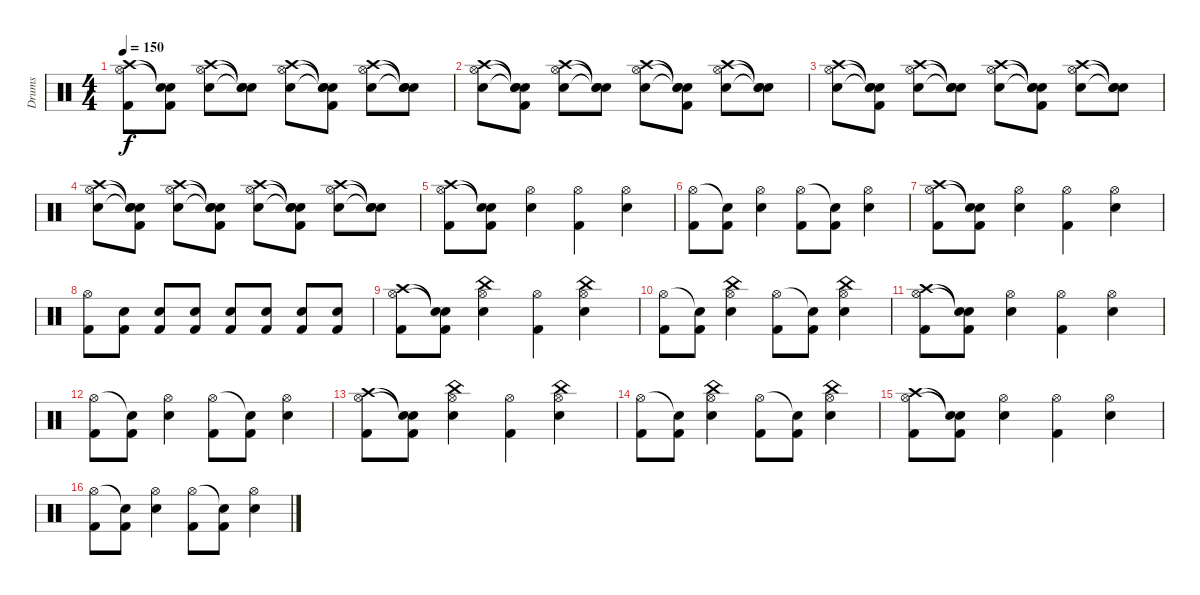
\track ("Drums" "Drums") {instrument percussion}
\staff {score}
\articulation defaults
\ts (4 4)
\tempo 150
\clef neutral
\ks c
("Crash high (hit)" "Hi-Hat (open)" "Kick (hit) 2").8{dy f} ("Snare (hit)"{t} "Snare (hit)"{t} "Kick (hit) 2").8 ("Crash high (hit)" "Snare (hit) 2" "Hi-Hat (open)").8 ("Snare (hit)"{t} "Snare (hit)"{t} "Snare (hit)"{t}).8 ("Crash high (hit)" "Snare (hit) 2" "Hi-Hat (open)").8 ("Snare (hit)"{t} "Snare (hit)"{t} "Snare (hit)"{t} "Kick (hit) 2").8 ("Crash high (hit)" "Snare (hit) 2" "Hi-Hat (open)").8 ("Snare (hit)"{t} "Snare (hit)"{t} "Snare (hit)"{t}).8 |
("Crash high (hit)" "Snare (hit) 2" "Hi-Hat (open)").8 ("Snare (hit)"{t} "Snare (hit)"{t} "Snare (hit)"{t} "Kick (hit) 2").8 ("Crash high (hit)" "Snare (hit) 2" "Hi-Hat (open)").8 ("Snare (hit)"{t} "Snare (hit)"{t} "Snare (hit)"{t}).8 ("Crash high (hit)" "Snare (hit) 2" "Hi-Hat (open)").8 ("Snare (hit)"{t} "Snare (hit)"{t} "Snare (hit)"{t} "Kick (hit) 2").8 ("Crash high (hit)" "Snare (hit) 2" "Hi-Hat (open)").8 ("Snare (hit)"{t} "Snare (hit)"{t} "Snare (hit)"{t}).8 |
("Crash high (hit)" "Snare (hit) 2" "Hi-Hat (open)").8 ("Snare (hit)"{t} "Snare (hit)"{t} "Snare (hit)"{t} "Kick (hit) 2").8 ("Crash high (hit)" "Snare (hit) 2" "Hi-Hat (open)").8 ("Snare (hit)"{t} "Snare (hit)"{t} "Snare (hit)"{t}).8 ("Crash high (hit)" "Snare (hit) 2" "Hi-Hat (open)").8 ("Snare (hit)"{t} "Snare (hit)"{t} "Snare (hit)"{t} "Kick (hit) 2").8 ("Crash high (hit)" "Snare (hit) 2" "Hi-Hat (open)").8 ("Snare (hit)"{t} "Snare (hit)"{t} "Snare (hit)"{t}).8 |
("Crash high (hit)" "Snare (hit) 2" "Hi-Hat (open)").8 ("Snare (hit)"{t} "Snare (hit)"{t} "Snare (hit)"{t} "Kick (hit) 2").8 ("Crash high (hit)" "Snare (hit) 2" "Hi-Hat (open)").8 ("Snare (hit)"{t} "Snare (hit)"{t} "Snare (hit)"{t} "Kick (hit) 2").8 ("Crash high (hit)" "Snare (hit) 2" "Hi-Hat (open)").8 ("Snare (hit)"{t} "Snare (hit)"{t} "Snare (hit)"{t} "Kick (hit) 2").8 ("Crash high (hit)" "Snare (hit) 2" "Hi-Hat (open)").8 ("Snare (hit)"{t} "Snare (hit)"{t} "Snare (hit)"{t}).8 |
("Crash high (hit)" "Hi-Hat (open)" "Kick (hit) 2").8 ("Snare (hit)"{t} "Snare (hit)"{t} "Kick (hit) 2").8 ("Snare (hit) 2" "Hi-Hat (open)").4 ("Hi-Hat (open)" "Kick (hit) 2").4 ("Snare (hit) 2" "Hi-Hat (open)").4 |
("Hi-Hat (open)" "Kick (hit) 2").8 ("Snare (hit)"{t} "Kick (hit) 2").8 ("Snare (hit) 2" "Hi-Hat (open)").4 ("Hi-Hat (open)" "Kick (hit) 2").8 ("Snare (hit)"{t} "Kick (hit) 2").8 ("Snare (hit) 2" "Hi-Hat (open)").4 |
("Crash high (hit)" "Hi-Hat (open)" "Kick (hit) 2").8 ("Snare (hit)"{t} "Snare (hit)"{t} "Kick (hit) 2").8 ("Snare (hit) 2" "Hi-Hat (open)").4 ("Hi-Hat (open)" "Kick (hit) 2").4 ("Snare (hit) 2" "Hi-Hat (open)").4 |
("Hi-Hat (open)" "Kick (hit) 2").8 ("Snare (hit) 2" "Kick (hit) 2").8 ("Snare (hit) 2" "Kick (hit) 2").8 ("Snare (hit) 2" "Kick (hit) 2").8 ("Snare (hit) 2" "Kick (hit) 2").8 ("Snare (hit) 2" "Kick (hit) 2").8 ("Snare (hit) 2" "Kick (hit) 2").8 ("Snare (hit) 2" "Kick (hit) 2").8 |
("Crash high (hit)" "Hi-Hat (open)" "Kick (hit) 2").8 ("Snare (hit)"{t} "Snare (hit)"{t} "Kick (hit) 2").8 ("Snare (hit) 2" "Hi-Hat (open)" "China (hit)").4 ("Hi-Hat (open)" "Kick (hit) 2").4 ("Snare (hit) 2" "Hi-Hat (open)" "China (hit)").4 |
("Hi-Hat (open)" "Kick (hit) 2").8 ("Snare (hit)"{t} "Kick (hit) 2").8 ("Snare (hit) 2" "Hi-Hat (open)" "China (hit)").4 ("Hi-Hat (open)" "Kick (hit) 2").8 ("Snare (hit)"{t} "Kick (hit) 2").8 ("Snare (hit) 2" "Hi-Hat (open)" "China (hit)").4 |
("Crash high (hit)" "Hi-Hat (open)" "Kick (hit) 2").8 ("Snare (hit)"{t} "Snare (hit)"{t} "Kick (hit) 2").8 ("Snare (hit) 2" "Hi-Hat (open)").4 ("Hi-Hat (open)" "Kick (hit) 2").4 ("Snare (hit) 2" "Hi-Hat (open)").4 |
("Hi-Hat (open)" "Kick (hit) 2").8 ("Snare (hit)"{t} "Kick (hit) 2").8 ("Snare (hit) 2" "Hi-Hat (open)").4 ("Hi-Hat (open)" "Kick (hit) 2").8 ("Snare (hit)"{t} "Kick (hit) 2").8 ("Snare (hit) 2" "Hi-Hat (open)").4 |
("Crash high (hit)" "Hi-Hat (open)" "Kick (hit) 2").8 ("Snare (hit)"{t} "Snare (hit)"{t} "Kick (hit) 2").8 ("Snare (hit) 2" "Hi-Hat (open)" "China (hit)").4 ("Hi-Hat (open)" "Kick (hit) 2").4 ("Snare (hit) 2" "Hi-Hat (open)" "China (hit)").4 |
("Hi-Hat (open)" "Kick (hit) 2").8 ("Snare (hit)"{t} "Kick (hit) 2").8 ("Snare (hit) 2" "Hi-Hat (open)" "China (hit)").4 ("Hi-Hat (open)" "Kick (hit) 2").8 ("Snare (hit)"{t} "Kick (hit) 2").8 ("Snare (hit) 2" "Hi-Hat (open)" "China (hit)").4 |
("Crash high (hit)" "Hi-Hat (open)" "Kick (hit) 2").8 ("Snare (hit)"{t} "Snare (hit)"{t} "Kick (hit) 2").8 ("Snare (hit) 2" "Hi-Hat (open)").4 ("Hi-Hat (open)" "Kick (hit) 2").4 ("Snare (hit) 2" "Hi-Hat (open)").4 |
("Hi-Hat (open)" "Kick (hit) 2").8 ("Snare (hit)"{t} "Kick (hit) 2").8 ("Snare (hit) 2" "Hi-Hat (open)").4 ("Hi-Hat (open)" "Kick (hit) 2").8 ("Snare (hit)"{t} "Kick (hit) 2").8 ("Snare (hit) 2" "Hi-Hat (open)").4
